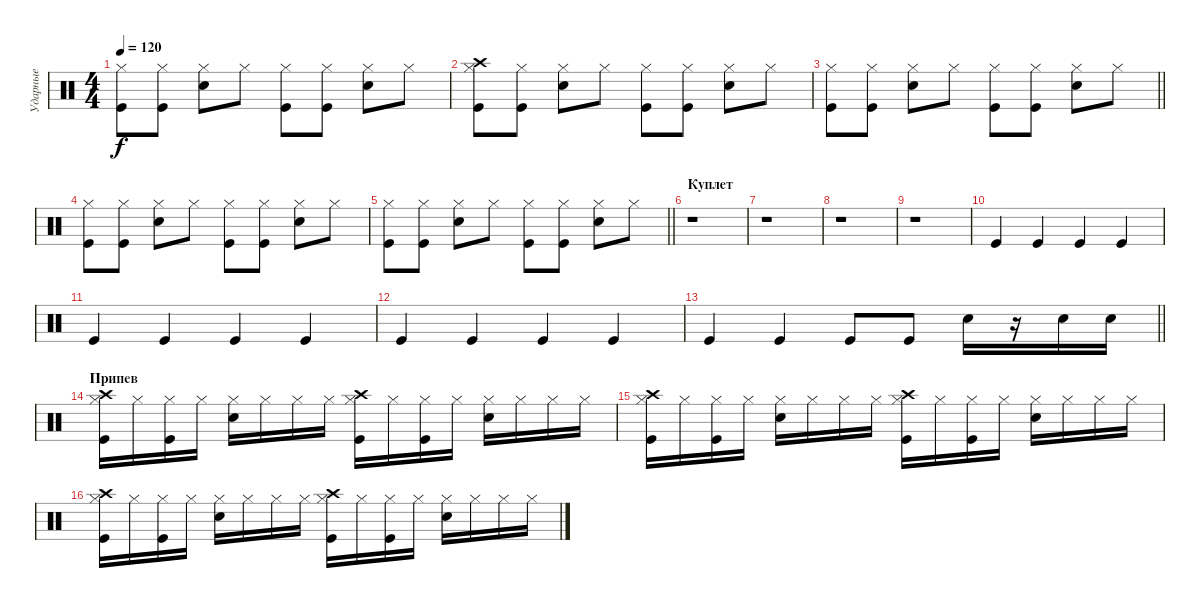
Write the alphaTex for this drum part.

\track ("Ударные" "Ударные") {instrument percussion}
\staff {score}
\articulation defaults
\ts (4 4)
\tempo 120
\clef neutral
\ks c
("Kick (hit)" "Hi-Hat (closed)").8{dy f} ("Kick (hit)" "Hi-Hat (closed)").8 ("Snare (hit) 2" "Hi-Hat (closed)").8 "Hi-Hat (closed)".8 ("Kick (hit)" "Hi-Hat (closed)").8 ("Kick (hit)" "Hi-Hat (closed)").8 ("Snare (hit) 2" "Hi-Hat (closed)").8 "Hi-Hat (closed)".8 |
("Kick (hit)" "Crash high (hit)" "Hi-Hat (closed)").8 ("Kick (hit)" "Hi-Hat (closed)").8 ("Snare (hit) 2" "Hi-Hat (closed)").8 "Hi-Hat (closed)".8 ("Kick (hit)" "Hi-Hat (closed)").8 ("Kick (hit)" "Hi-Hat (closed)").8 ("Snare (hit) 2" "Hi-Hat (closed)").8 "Hi-Hat (closed)".8 |
\barLineRight lightlight
("Kick (hit)" "Hi-Hat (closed)").8 ("Kick (hit)" "Hi-Hat (closed)").8 ("Snare (hit) 2" "Hi-Hat (closed)").8 "Hi-Hat (closed)".8 ("Kick (hit)" "Hi-Hat (closed)").8 ("Kick (hit)" "Hi-Hat (closed)").8 ("Snare (hit) 2" "Hi-Hat (closed)").8 "Hi-Hat (closed)".8 |
("Kick (hit)" "Hi-Hat (closed)").8 ("Kick (hit)" "Hi-Hat (closed)").8 ("Snare (hit) 2" "Hi-Hat (closed)").8 "Hi-Hat (closed)".8 ("Kick (hit)" "Hi-Hat (closed)").8 ("Kick (hit)" "Hi-Hat (closed)").8 ("Snare (hit) 2" "Hi-Hat (closed)").8 "Hi-Hat (closed)".8 |
\barLineRight lightlight
("Kick (hit)" "Hi-Hat (closed)").8 ("Kick (hit)" "Hi-Hat (closed)").8 ("Snare (hit) 2" "Hi-Hat (closed)").8 "Hi-Hat (closed)".8 ("Kick (hit)" "Hi-Hat (closed)").8 ("Kick (hit)" "Hi-Hat (closed)").8 ("Snare (hit) 2" "Hi-Hat (closed)").8 "Hi-Hat (closed)".8 |
\section ("" "Куплет")
r.1 |
r.1 |
r.1 |
r.1 |
"Kick (hit)".4 "Kick (hit)".4 "Kick (hit)".4 "Kick (hit)".4 |
"Kick (hit)".4 "Kick (hit)".4 "Kick (hit)".4 "Kick (hit)".4 |
"Kick (hit)".4 "Kick (hit)".4 "Kick (hit)".4 "Kick (hit)".4 |
\barLineRight lightlight "Kick (hit)".4 "Kick (hit)".4 "Kick (hit)".8 "Kick (hit)".8 "Snare (hit) 2".16
r.16 "Snare (hit) 2".16 "Snare (hit) 2".16 |
\section ("" "Припев")
("Hi-Hat (closed)" "Kick (hit)" "Crash high (hit)").16 "Hi-Hat (closed)".16 ("Hi-Hat (closed)" "Kick (hit)").16 "Hi-Hat (closed)".16 ("Hi-Hat (closed)" "Snare (hit) 2").16 "Hi-Hat (closed)".16 "Hi-Hat (closed)".16 "Hi-Hat (closed)".16 ("Hi-Hat (closed)" "Kick (hit)" "Crash high (hit)").16 "Hi-Hat (closed)".16 ("Hi-Hat (closed)" "Kick (hit)").16 "Hi-Hat (closed)".16 ("Hi-Hat (closed)" "Snare (hit) 2").16 "Hi-Hat (closed)".16 "Hi-Hat (closed)".16 "Hi-Hat (closed)".16 |
("Hi-Hat (closed)" "Kick (hit)" "Crash high (hit)").16 "Hi-Hat (closed)".16 ("Hi-Hat (closed)" "Kick (hit)").16 "Hi-Hat (closed)".16 ("Hi-Hat (closed)" "Snare (hit) 2").16 "Hi-Hat (closed)".16 "Hi-Hat (closed)".16 "Hi-Hat (closed)".16 ("Hi-Hat (closed)" "Kick (hit)" "Crash high (hit)").16 "Hi-Hat (closed)".16 ("Hi-Hat (closed)" "Kick (hit)").16 "Hi-Hat (closed)".16 ("Hi-Hat (closed)" "Snare (hit) 2").16 "Hi-Hat (closed)".16 "Hi-Hat (closed)".16 "Hi-Hat (closed)".16 |
("Hi-Hat (closed)" "Kick (hit)" "Crash high (hit)").16 "Hi-Hat (closed)".16 ("Hi-Hat (closed)" "Kick (hit)").16 "Hi-Hat (closed)".16 ("Hi-Hat (closed)" "Snare (hit) 2").16 "Hi-Hat (closed)".16 "Hi-Hat (closed)".16 "Hi-Hat (closed)".16 ("Hi-Hat (closed)" "Kick (hit)" "Crash high (hit)").16 "Hi-Hat (closed)".16 ("Hi-Hat (closed)" "Kick (hit)").16 "Hi-Hat (closed)".16 ("Hi-Hat (closed)" "Snare (hit) 2").16 "Hi-Hat (closed)".16 "Hi-Hat (closed)".16 "Hi-Hat (closed)".16
